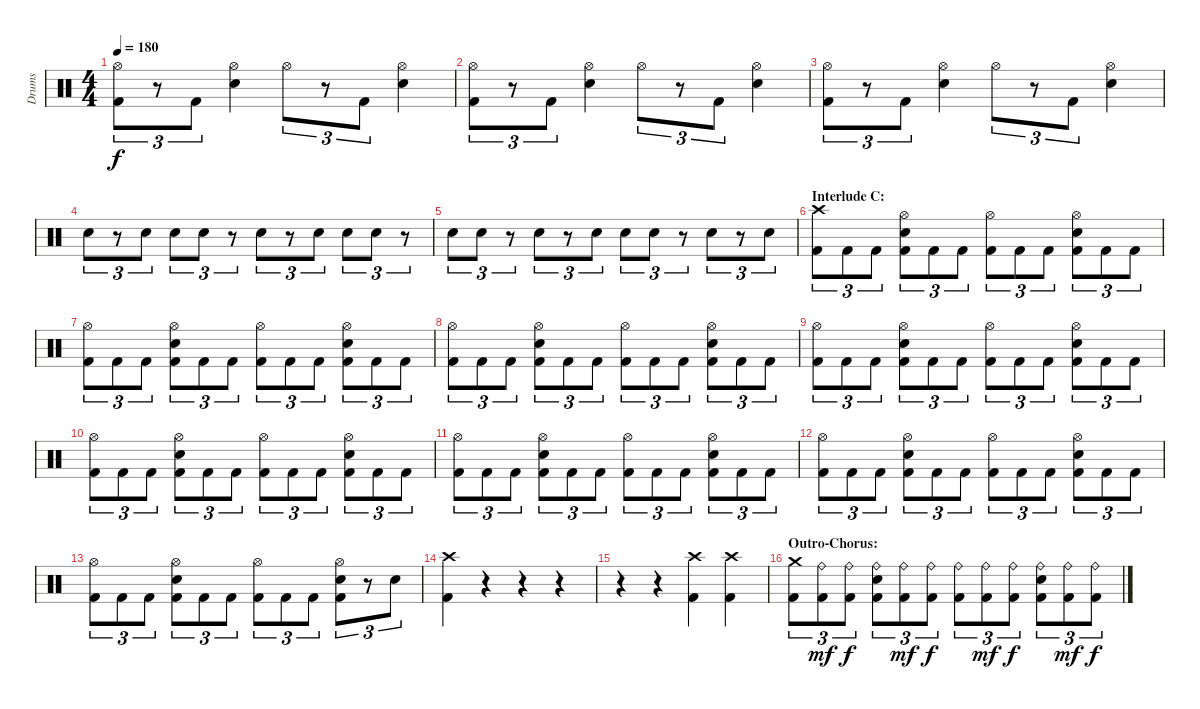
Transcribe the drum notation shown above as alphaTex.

\track ("Drums" "Drums") {instrument percussion}
\staff {score}
\articulation defaults
\ts (4 4)
\tempo 180
\clef neutral
\ks c
("Hi-Hat (open)" "Kick (hit) 2").8{tu (3 2) dy f} r.8{tu (3 2)} "Kick (hit) 2".8{tu (3 2)} ("Hi-Hat (open)" "Electric Snare (hit)").4 "Hi-Hat (open)".8{tu (3 2)} r.8{tu (3 2)} "Kick (hit) 2".8{tu (3 2)} ("Hi-Hat (open)" "Electric Snare (hit)").4 |
("Hi-Hat (open)" "Kick (hit) 2").8{tu (3 2)} r.8{tu (3 2)} "Kick (hit) 2".8{tu (3 2)} ("Hi-Hat (open)" "Electric Snare (hit)").4 "Hi-Hat (open)".8{tu (3 2)} r.8{tu (3 2)} "Kick (hit) 2".8{tu (3 2)} ("Hi-Hat (open)" "Electric Snare (hit)").4 |
("Hi-Hat (open)" "Kick (hit) 2").8{tu (3 2)} r.8{tu (3 2)} "Kick (hit) 2".8{tu (3 2)} ("Hi-Hat (open)" "Electric Snare (hit)").4 "Hi-Hat (open)".8{tu (3 2)} r.8{tu (3 2)} "Kick (hit) 2".8{tu (3 2)} ("Hi-Hat (open)" "Electric Snare (hit)").4 |
"Electric Snare (hit)".8{tu (3 2)} r.8{tu (3 2)} "Electric Snare (hit)".8{tu (3 2)} "Electric Snare (hit)".8{tu (3 2)} "Electric Snare (hit)".8{tu (3 2)} r.8{tu (3 2)} "Electric Snare (hit)".8{tu (3 2)} r.8{tu (3 2)} "Electric Snare (hit)".8{tu (3 2)} "Electric Snare (hit)".8{tu (3 2)} "Electric Snare (hit)".8{tu (3 2)} r.8{tu (3 2)} |
"Electric Snare (hit)".8{tu (3 2)} "Electric Snare (hit)".8{tu (3 2)} r.8{tu (3 2)} "Electric Snare (hit)".8{tu (3 2)} r.8{tu (3 2)} "Electric Snare (hit)".8{tu (3 2)} "Electric Snare (hit)".8{tu (3 2)} "Electric Snare (hit)".8{tu (3 2)} r.8{tu (3 2)} "Electric Snare (hit)".8{tu (3 2)} r.8{tu (3 2)} "Electric Snare (hit)".8{tu (3 2)} |
\section ("" "Interlude C:")
("Crash high (hit)" "Kick (hit) 2").8{tu (3 2)} "Kick (hit) 2".8{tu (3 2)} "Kick (hit) 2".8{tu (3 2)} ("Hi-Hat (open)" "Electric Snare (hit)" "Kick (hit) 2").8{tu (3 2)} "Kick (hit) 2".8{tu (3 2)} "Kick (hit) 2".8{tu (3 2)} ("Hi-Hat (open)" "Kick (hit) 2").8{tu (3 2)} "Kick (hit) 2".8{tu (3 2)} "Kick (hit) 2".8{tu (3 2)} ("Hi-Hat (open)" "Electric Snare (hit)" "Kick (hit) 2").8{tu (3 2)} "Kick (hit) 2".8{tu (3 2)} "Kick (hit) 2".8{tu (3 2)} |
("Hi-Hat (open)" "Kick (hit) 2").8{tu (3 2)} "Kick (hit) 2".8{tu (3 2)} "Kick (hit) 2".8{tu (3 2)} ("Hi-Hat (open)" "Electric Snare (hit)" "Kick (hit) 2").8{tu (3 2)} "Kick (hit) 2".8{tu (3 2)} "Kick (hit) 2".8{tu (3 2)} ("Hi-Hat (open)" "Kick (hit) 2").8{tu (3 2)} "Kick (hit) 2".8{tu (3 2)} "Kick (hit) 2".8{tu (3 2)} ("Hi-Hat (open)" "Electric Snare (hit)" "Kick (hit) 2").8{tu (3 2)} "Kick (hit) 2".8{tu (3 2)} "Kick (hit) 2".8{tu (3 2)} |
("Hi-Hat (open)" "Kick (hit) 2").8{tu (3 2)} "Kick (hit) 2".8{tu (3 2)} "Kick (hit) 2".8{tu (3 2)} ("Hi-Hat (open)" "Electric Snare (hit)" "Kick (hit) 2").8{tu (3 2)} "Kick (hit) 2".8{tu (3 2)} "Kick (hit) 2".8{tu (3 2)} ("Hi-Hat (open)" "Kick (hit) 2").8{tu (3 2)} "Kick (hit) 2".8{tu (3 2)} "Kick (hit) 2".8{tu (3 2)} ("Hi-Hat (open)" "Electric Snare (hit)" "Kick (hit) 2").8{tu (3 2)} "Kick (hit) 2".8{tu (3 2)} "Kick (hit) 2".8{tu (3 2)} |
("Hi-Hat (open)" "Kick (hit) 2").8{tu (3 2)} "Kick (hit) 2".8{tu (3 2)} "Kick (hit) 2".8{tu (3 2)} ("Hi-Hat (open)" "Electric Snare (hit)" "Kick (hit) 2").8{tu (3 2)} "Kick (hit) 2".8{tu (3 2)} "Kick (hit) 2".8{tu (3 2)} ("Hi-Hat (open)" "Kick (hit) 2").8{tu (3 2)} "Kick (hit) 2".8{tu (3 2)} "Kick (hit) 2".8{tu (3 2)} ("Hi-Hat (open)" "Electric Snare (hit)" "Kick (hit) 2").8{tu (3 2)} "Kick (hit) 2".8{tu (3 2)} "Kick (hit) 2".8{tu (3 2)} |
("Hi-Hat (open)" "Kick (hit) 2").8{tu (3 2)} "Kick (hit) 2".8{tu (3 2)} "Kick (hit) 2".8{tu (3 2)} ("Hi-Hat (open)" "Electric Snare (hit)" "Kick (hit) 2").8{tu (3 2)} "Kick (hit) 2".8{tu (3 2)} "Kick (hit) 2".8{tu (3 2)} ("Hi-Hat (open)" "Kick (hit) 2").8{tu (3 2)} "Kick (hit) 2".8{tu (3 2)} "Kick (hit) 2".8{tu (3 2)} ("Hi-Hat (open)" "Electric Snare (hit)" "Kick (hit) 2").8{tu (3 2)} "Kick (hit) 2".8{tu (3 2)} "Kick (hit) 2".8{tu (3 2)} |
("Hi-Hat (open)" "Kick (hit) 2").8{tu (3 2)} "Kick (hit) 2".8{tu (3 2)} "Kick (hit) 2".8{tu (3 2)} ("Hi-Hat (open)" "Electric Snare (hit)" "Kick (hit) 2").8{tu (3 2)} "Kick (hit) 2".8{tu (3 2)} "Kick (hit) 2".8{tu (3 2)} ("Hi-Hat (open)" "Kick (hit) 2").8{tu (3 2)} "Kick (hit) 2".8{tu (3 2)} "Kick (hit) 2".8{tu (3 2)} ("Hi-Hat (open)" "Electric Snare (hit)" "Kick (hit) 2").8{tu (3 2)} "Kick (hit) 2".8{tu (3 2)} "Kick (hit) 2".8{tu (3 2)} |
("Hi-Hat (open)" "Kick (hit) 2").8{tu (3 2)} "Kick (hit) 2".8{tu (3 2)} "Kick (hit) 2".8{tu (3 2)} ("Hi-Hat (open)" "Electric Snare (hit)" "Kick (hit) 2").8{tu (3 2)} "Kick (hit) 2".8{tu (3 2)} "Kick (hit) 2".8{tu (3 2)} ("Hi-Hat (open)" "Kick (hit) 2").8{tu (3 2)} "Kick (hit) 2".8{tu (3 2)} "Kick (hit) 2".8{tu (3 2)} ("Hi-Hat (open)" "Electric Snare (hit)" "Kick (hit) 2").8{tu (3 2)} "Kick (hit) 2".8{tu (3 2)} "Kick (hit) 2".8{tu (3 2)} |
("Hi-Hat (open)" "Kick (hit) 2").8{tu (3 2)} "Kick (hit) 2".8{tu (3 2)} "Kick (hit) 2".8{tu (3 2)} ("Hi-Hat (open)" "Electric Snare (hit)" "Kick (hit) 2").8{tu (3 2)} "Kick (hit) 2".8{tu (3 2)} "Kick (hit) 2".8{tu (3 2)} ("Hi-Hat (open)" "Kick (hit) 2").8{tu (3 2)} "Kick (hit) 2".8{tu (3 2)} "Kick (hit) 2".8{tu (3 2)} ("Hi-Hat (open)" "Electric Snare (hit)" "Kick (hit) 2").8{tu (3 2)} r.8{tu (3 2)} "Electric Snare (hit)".8{tu (3 2)} |
("Crash high (hit)" "Kick (hit) 2").4 r.4 r.4 r.4 |
r.4 r.4 ("Crash high (hit)" "Kick (hit) 2").4 ("Crash high (hit)" "Kick (hit) 2").4 |
\section ("" "Outro-Chorus:")
("Crash medium (hit)" "Kick (hit) 2").8{tu (3 2)} ("Ride (bell)" "Kick (hit) 2").8{tu (3 2) dy mf} ("Ride (bell)" "Kick (hit) 2").8{tu (3 2) dy f} ("Ride (bell)" "Electric Snare (hit)" "Kick (hit) 2").8{tu (3 2)} ("Ride (bell)" "Kick (hit) 2").8{tu (3 2) dy mf} ("Ride (bell)" "Kick (hit) 2").8{tu (3 2) dy f} ("Ride (bell)" "Kick (hit) 2").8{tu (3 2)} ("Ride (bell)" "Kick (hit) 2").8{tu (3 2) dy mf} ("Ride (bell)" "Kick (hit) 2").8{tu (3 2) dy f} ("Ride (bell)" "Electric Snare (hit)" "Kick (hit) 2").8{tu (3 2)} ("Ride (bell)" "Kick (hit) 2").8{tu (3 2) dy mf} ("Ride (bell)" "Kick (hit) 2").8{tu (3 2) dy f}
